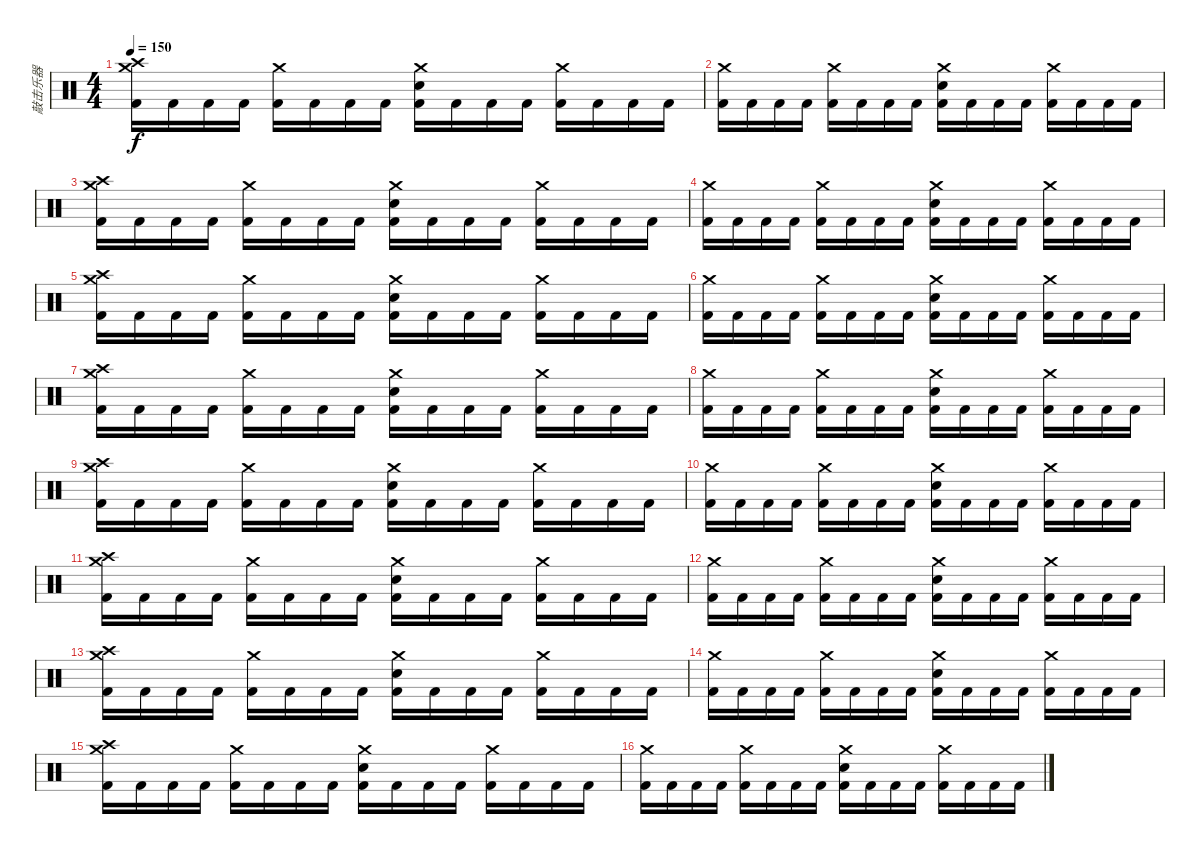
\track ("敲击乐器" "敲击乐器") {instrument percussion}
\staff {score}
\articulation defaults
\ts (4 4)
\tempo 150
\clef neutral
\ks c
("Crash high (hit)" "Crash medium (hit)" "Kick (hit) 2").16{dy f} "Kick (hit) 2".16 "Kick (hit) 2".16 "Kick (hit) 2".16 ("Crash medium (hit)" "Kick (hit) 2").16 "Kick (hit) 2".16 "Kick (hit) 2".16 "Kick (hit) 2".16 ("Crash medium (hit)" "Snare (hit) 2" "Kick (hit) 2").16 "Kick (hit) 2".16 "Kick (hit) 2".16 "Kick (hit) 2".16 ("Crash medium (hit)" "Kick (hit) 2").16 "Kick (hit) 2".16 "Kick (hit) 2".16 "Kick (hit) 2".16 |
("Crash medium (hit)" "Kick (hit) 2").16 "Kick (hit) 2".16 "Kick (hit) 2".16 "Kick (hit) 2".16 ("Crash medium (hit)" "Kick (hit) 2").16 "Kick (hit) 2".16 "Kick (hit) 2".16 "Kick (hit) 2".16 ("Crash medium (hit)" "Snare (hit) 2" "Kick (hit) 2").16 "Kick (hit) 2".16 "Kick (hit) 2".16 "Kick (hit) 2".16 ("Crash medium (hit)" "Kick (hit) 2").16 "Kick (hit) 2".16 "Kick (hit) 2".16 "Kick (hit) 2".16 |
("Crash high (hit)" "Crash medium (hit)" "Kick (hit) 2").16 "Kick (hit) 2".16 "Kick (hit) 2".16 "Kick (hit) 2".16 ("Crash medium (hit)" "Kick (hit) 2").16 "Kick (hit) 2".16 "Kick (hit) 2".16 "Kick (hit) 2".16 ("Crash medium (hit)" "Snare (hit) 2" "Kick (hit) 2").16 "Kick (hit) 2".16 "Kick (hit) 2".16 "Kick (hit) 2".16 ("Crash medium (hit)" "Kick (hit) 2").16 "Kick (hit) 2".16 "Kick (hit) 2".16 "Kick (hit) 2".16 |
("Crash medium (hit)" "Kick (hit) 2").16 "Kick (hit) 2".16 "Kick (hit) 2".16 "Kick (hit) 2".16 ("Crash medium (hit)" "Kick (hit) 2").16 "Kick (hit) 2".16 "Kick (hit) 2".16 "Kick (hit) 2".16 ("Crash medium (hit)" "Snare (hit) 2" "Kick (hit) 2").16 "Kick (hit) 2".16 "Kick (hit) 2".16 "Kick (hit) 2".16 ("Crash medium (hit)" "Kick (hit) 2").16 "Kick (hit) 2".16 "Kick (hit) 2".16 "Kick (hit) 2".16 |
("Crash high (hit)" "Crash medium (hit)" "Kick (hit) 2").16 "Kick (hit) 2".16 "Kick (hit) 2".16 "Kick (hit) 2".16 ("Crash medium (hit)" "Kick (hit) 2").16 "Kick (hit) 2".16 "Kick (hit) 2".16 "Kick (hit) 2".16 ("Crash medium (hit)" "Snare (hit) 2" "Kick (hit) 2").16 "Kick (hit) 2".16 "Kick (hit) 2".16 "Kick (hit) 2".16 ("Crash medium (hit)" "Kick (hit) 2").16 "Kick (hit) 2".16 "Kick (hit) 2".16 "Kick (hit) 2".16 |
("Crash medium (hit)" "Kick (hit) 2").16 "Kick (hit) 2".16 "Kick (hit) 2".16 "Kick (hit) 2".16 ("Crash medium (hit)" "Kick (hit) 2").16 "Kick (hit) 2".16 "Kick (hit) 2".16 "Kick (hit) 2".16 ("Crash medium (hit)" "Snare (hit) 2" "Kick (hit) 2").16 "Kick (hit) 2".16 "Kick (hit) 2".16 "Kick (hit) 2".16 ("Crash medium (hit)" "Kick (hit) 2").16 "Kick (hit) 2".16 "Kick (hit) 2".16 "Kick (hit) 2".16 |
("Crash high (hit)" "Crash medium (hit)" "Kick (hit) 2").16 "Kick (hit) 2".16 "Kick (hit) 2".16 "Kick (hit) 2".16 ("Crash medium (hit)" "Kick (hit) 2").16 "Kick (hit) 2".16 "Kick (hit) 2".16 "Kick (hit) 2".16 ("Crash medium (hit)" "Snare (hit) 2" "Kick (hit) 2").16 "Kick (hit) 2".16 "Kick (hit) 2".16 "Kick (hit) 2".16 ("Crash medium (hit)" "Kick (hit) 2").16 "Kick (hit) 2".16 "Kick (hit) 2".16 "Kick (hit) 2".16 |
("Crash medium (hit)" "Kick (hit) 2").16 "Kick (hit) 2".16 "Kick (hit) 2".16 "Kick (hit) 2".16 ("Crash medium (hit)" "Kick (hit) 2").16 "Kick (hit) 2".16 "Kick (hit) 2".16 "Kick (hit) 2".16 ("Crash medium (hit)" "Snare (hit) 2" "Kick (hit) 2").16 "Kick (hit) 2".16 "Kick (hit) 2".16 "Kick (hit) 2".16 ("Crash medium (hit)" "Kick (hit) 2").16 "Kick (hit) 2".16 "Kick (hit) 2".16 "Kick (hit) 2".16 |
("Crash high (hit)" "Crash medium (hit)" "Kick (hit) 2").16 "Kick (hit) 2".16 "Kick (hit) 2".16 "Kick (hit) 2".16 ("Crash medium (hit)" "Kick (hit) 2").16 "Kick (hit) 2".16 "Kick (hit) 2".16 "Kick (hit) 2".16 ("Crash medium (hit)" "Snare (hit) 2" "Kick (hit) 2").16 "Kick (hit) 2".16 "Kick (hit) 2".16 "Kick (hit) 2".16 ("Crash medium (hit)" "Kick (hit) 2").16 "Kick (hit) 2".16 "Kick (hit) 2".16 "Kick (hit) 2".16 |
("Crash medium (hit)" "Kick (hit) 2").16 "Kick (hit) 2".16 "Kick (hit) 2".16 "Kick (hit) 2".16 ("Crash medium (hit)" "Kick (hit) 2").16 "Kick (hit) 2".16 "Kick (hit) 2".16 "Kick (hit) 2".16 ("Crash medium (hit)" "Snare (hit) 2" "Kick (hit) 2").16 "Kick (hit) 2".16 "Kick (hit) 2".16 "Kick (hit) 2".16 ("Crash medium (hit)" "Kick (hit) 2").16 "Kick (hit) 2".16 "Kick (hit) 2".16 "Kick (hit) 2".16 |
("Crash high (hit)" "Crash medium (hit)" "Kick (hit) 2").16 "Kick (hit) 2".16 "Kick (hit) 2".16 "Kick (hit) 2".16 ("Crash medium (hit)" "Kick (hit) 2").16 "Kick (hit) 2".16 "Kick (hit) 2".16 "Kick (hit) 2".16 ("Crash medium (hit)" "Snare (hit) 2" "Kick (hit) 2").16 "Kick (hit) 2".16 "Kick (hit) 2".16 "Kick (hit) 2".16 ("Crash medium (hit)" "Kick (hit) 2").16 "Kick (hit) 2".16 "Kick (hit) 2".16 "Kick (hit) 2".16 |
("Crash medium (hit)" "Kick (hit) 2").16 "Kick (hit) 2".16 "Kick (hit) 2".16 "Kick (hit) 2".16 ("Crash medium (hit)" "Kick (hit) 2").16 "Kick (hit) 2".16 "Kick (hit) 2".16 "Kick (hit) 2".16 ("Crash medium (hit)" "Snare (hit) 2" "Kick (hit) 2").16 "Kick (hit) 2".16 "Kick (hit) 2".16 "Kick (hit) 2".16 ("Crash medium (hit)" "Kick (hit) 2").16 "Kick (hit) 2".16 "Kick (hit) 2".16 "Kick (hit) 2".16 |
("Crash high (hit)" "Crash medium (hit)" "Kick (hit) 2").16 "Kick (hit) 2".16 "Kick (hit) 2".16 "Kick (hit) 2".16 ("Crash medium (hit)" "Kick (hit) 2").16 "Kick (hit) 2".16 "Kick (hit) 2".16 "Kick (hit) 2".16 ("Crash medium (hit)" "Snare (hit) 2" "Kick (hit) 2").16 "Kick (hit) 2".16 "Kick (hit) 2".16 "Kick (hit) 2".16 ("Crash medium (hit)" "Kick (hit) 2").16 "Kick (hit) 2".16 "Kick (hit) 2".16 "Kick (hit) 2".16 |
("Crash medium (hit)" "Kick (hit) 2").16 "Kick (hit) 2".16 "Kick (hit) 2".16 "Kick (hit) 2".16 ("Crash medium (hit)" "Kick (hit) 2").16 "Kick (hit) 2".16 "Kick (hit) 2".16 "Kick (hit) 2".16 ("Crash medium (hit)" "Snare (hit) 2" "Kick (hit) 2").16 "Kick (hit) 2".16 "Kick (hit) 2".16 "Kick (hit) 2".16 ("Crash medium (hit)" "Kick (hit) 2").16 "Kick (hit) 2".16 "Kick (hit) 2".16 "Kick (hit) 2".16 |
("Crash high (hit)" "Crash medium (hit)" "Kick (hit) 2").16 "Kick (hit) 2".16 "Kick (hit) 2".16 "Kick (hit) 2".16 ("Crash medium (hit)" "Kick (hit) 2").16 "Kick (hit) 2".16 "Kick (hit) 2".16 "Kick (hit) 2".16 ("Crash medium (hit)" "Snare (hit) 2" "Kick (hit) 2").16 "Kick (hit) 2".16 "Kick (hit) 2".16 "Kick (hit) 2".16 ("Crash medium (hit)" "Kick (hit) 2").16 "Kick (hit) 2".16 "Kick (hit) 2".16 "Kick (hit) 2".16 |
("Crash medium (hit)" "Kick (hit) 2").16 "Kick (hit) 2".16 "Kick (hit) 2".16 "Kick (hit) 2".16 ("Crash medium (hit)" "Kick (hit) 2").16 "Kick (hit) 2".16 "Kick (hit) 2".16 "Kick (hit) 2".16 ("Crash medium (hit)" "Snare (hit) 2" "Kick (hit) 2").16 "Kick (hit) 2".16 "Kick (hit) 2".16 "Kick (hit) 2".16 ("Crash medium (hit)" "Kick (hit) 2").16 "Kick (hit) 2".16 "Kick (hit) 2".16 "Kick (hit) 2".16
